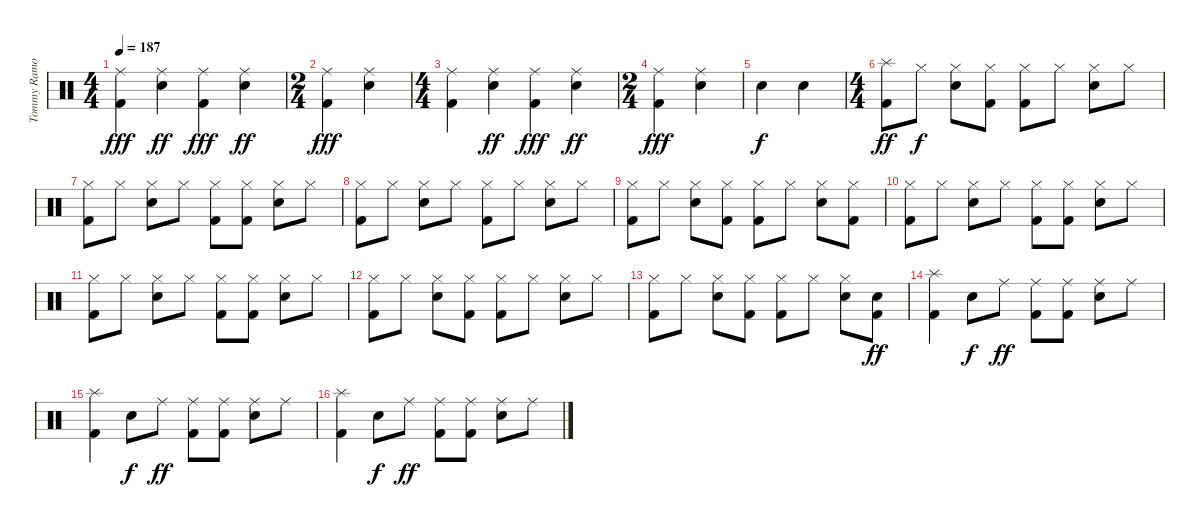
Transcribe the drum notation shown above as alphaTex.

\track ("Tommy Ramone" "Tommy Ramo") {instrument percussion}
\staff {score}
\articulation defaults
\ts (4 4)
\tempo 187
\clef neutral
\ks c
("Kick (hit) 2" "Ride (middle)").4{dy fff} ("Snare (hit) 2" "Ride (middle)").4{dy ff} ("Kick (hit) 2" "Ride (middle)").4{dy fff} ("Snare (hit) 2" "Ride (middle)").4{dy ff} |
\ts (2 4)
("Kick (hit) 2" "Ride (middle)").4{dy fff} ("Snare (hit) 2" "Ride (middle)").4 |
\ts (4 4)
("Kick (hit) 2" "Ride (middle)").4 ("Snare (hit) 2" "Ride (middle)").4{dy ff} ("Kick (hit) 2" "Ride (middle)").4{dy fff} ("Snare (hit) 2" "Ride (middle)").4{dy ff} |
\ts (2 4)
("Kick (hit) 2" "Ride (middle)").4{dy fff} ("Snare (hit) 2" "Ride (middle)").4 |
"Snare (hit) 2".4{dy f} "Snare (hit) 2".4 |
\ts (4 4)
("Kick (hit) 2" "Splash (hit)").8{dy ff} "Hi-Hat (closed)".8{dy f} ("Snare (hit) 2" "Hi-Hat (closed)").8 ("Kick (hit) 2" "Hi-Hat (closed)").8 ("Kick (hit) 2" "Hi-Hat (closed)").8 "Hi-Hat (closed)".8 ("Snare (hit) 2" "Hi-Hat (closed)").8 "Hi-Hat (closed)".8 |
("Kick (hit) 2" "Hi-Hat (closed)").8 "Hi-Hat (closed)".8 ("Snare (hit) 2" "Hi-Hat (closed)").8 "Hi-Hat (closed)".8 ("Kick (hit) 2" "Hi-Hat (closed)").8 ("Kick (hit) 2" "Hi-Hat (closed)").8 ("Snare (hit) 2" "Hi-Hat (closed)").8 "Hi-Hat (closed)".8 |
("Kick (hit) 2" "Hi-Hat (closed)").8 "Hi-Hat (closed)".8 ("Snare (hit) 2" "Hi-Hat (closed)").8 "Hi-Hat (closed)".8 ("Kick (hit) 2" "Hi-Hat (closed)").8 "Hi-Hat (closed)".8 ("Snare (hit) 2" "Hi-Hat (closed)").8 "Hi-Hat (closed)".8 |
("Kick (hit) 2" "Hi-Hat (closed)").8 "Hi-Hat (closed)".8 ("Snare (hit) 2" "Hi-Hat (closed)").8 ("Kick (hit) 2" "Hi-Hat (closed)").8 ("Kick (hit) 2" "Hi-Hat (closed)").8 "Hi-Hat (closed)".8 ("Snare (hit) 2" "Hi-Hat (closed)").8 ("Kick (hit) 2" "Hi-Hat (closed)").8 |
("Kick (hit) 2" "Hi-Hat (closed)").8 "Hi-Hat (closed)".8 ("Snare (hit) 2" "Hi-Hat (closed)").8 "Hi-Hat (closed)".8 ("Kick (hit) 2" "Hi-Hat (closed)").8 ("Kick (hit) 2" "Hi-Hat (closed)").8 ("Snare (hit) 2" "Hi-Hat (closed)").8 "Hi-Hat (closed)".8 |
("Kick (hit) 2" "Hi-Hat (closed)").8 "Hi-Hat (closed)".8 ("Snare (hit) 2" "Hi-Hat (closed)").8 "Hi-Hat (closed)".8 ("Kick (hit) 2" "Hi-Hat (closed)").8 ("Kick (hit) 2" "Hi-Hat (closed)").8 ("Snare (hit) 2" "Hi-Hat (closed)").8 "Hi-Hat (closed)".8 |
("Kick (hit) 2" "Hi-Hat (closed)").8 "Hi-Hat (closed)".8 ("Snare (hit) 2" "Hi-Hat (closed)").8 ("Kick (hit) 2" "Hi-Hat (closed)").8 ("Kick (hit) 2" "Hi-Hat (closed)").8 "Hi-Hat (closed)".8 ("Snare (hit) 2" "Hi-Hat (closed)").8 "Hi-Hat (closed)".8 |
("Kick (hit) 2" "Hi-Hat (closed)").8 "Hi-Hat (closed)".8 ("Snare (hit) 2" "Hi-Hat (closed)").8 ("Kick (hit) 2" "Hi-Hat (closed)").8 ("Kick (hit) 2" "Hi-Hat (closed)").8 "Hi-Hat (closed)".8 ("Snare (hit) 2" "Hi-Hat (closed)").8 ("Kick (hit) 2" "Hand Clap (hit)").8{dy ff} |
("Kick (hit) 2" "Splash (hit)").4 "Snare (hit) 2".8{dy f} "Ride (middle)".8{dy ff} ("Kick (hit) 2" "Ride (middle)").8 ("Kick (hit) 2" "Ride (middle)").8 ("Snare (hit) 2" "Ride (middle)").8 "Ride (middle)".8 |
("Kick (hit) 2" "Splash (hit)").4 "Snare (hit) 2".8{dy f} "Ride (middle)".8{dy ff} ("Kick (hit) 2" "Ride (middle)").8 ("Kick (hit) 2" "Ride (middle)").8 ("Snare (hit) 2" "Ride (middle)").8 "Ride (middle)".8 |
("Kick (hit) 2" "Splash (hit)").4 "Snare (hit) 2".8{dy f} "Ride (middle)".8{dy ff} ("Kick (hit) 2" "Ride (middle)").8 ("Kick (hit) 2" "Ride (middle)").8 ("Snare (hit) 2" "Ride (middle)").8 "Ride (middle)".8
